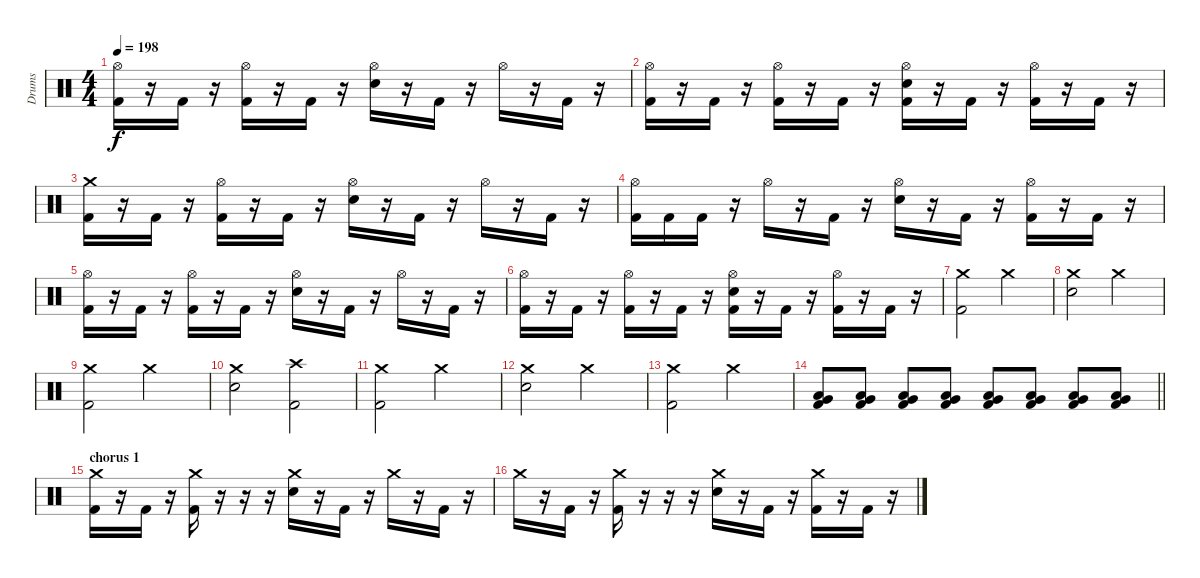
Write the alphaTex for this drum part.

\track ("Drums" "Drums") {instrument percussion}
\staff {score}
\articulation defaults
\ts (4 4)
\tempo 198
\clef neutral
\ks c
("Hi-Hat (open)" "Kick (hit) 2").16{dy f} r.16 "Kick (hit) 2".16 r.16 ("Hi-Hat (open)" "Kick (hit) 2").16 r.16 "Kick (hit) 2".16 r.16 ("Hi-Hat (open)" "Snare (hit) 2").16 r.16 "Kick (hit) 2".16 r.16 "Hi-Hat (open)".16 r.16 "Kick (hit) 2".16 r.16 |
("Hi-Hat (open)" "Kick (hit) 2").16 r.16 "Kick (hit) 2".16 r.16 ("Hi-Hat (open)" "Kick (hit) 2").16 r.16 "Kick (hit) 2".16 r.16 ("Hi-Hat (open)" "Snare (hit) 2" "Kick (hit) 2").16 r.16 "Kick (hit) 2".16 r.16 ("Hi-Hat (open)" "Kick (hit) 2").16 r.16 "Kick (hit) 2".16 r.16 |
("Crash medium (hit)" "Kick (hit) 2").16 r.16 "Kick (hit) 2".16 r.16 ("Hi-Hat (open)" "Kick (hit) 2").16 r.16 "Kick (hit) 2".16 r.16 ("Hi-Hat (open)" "Snare (hit) 2").16 r.16 "Kick (hit) 2".16 r.16 "Hi-Hat (open)".16 r.16 "Kick (hit) 2".16 r.16 |
("Hi-Hat (open)" "Kick (hit) 2").16 "Kick (hit) 2".16 "Kick (hit) 2".16 r.16 "Hi-Hat (open)".16 r.16 "Kick (hit) 2".16 r.16 ("Hi-Hat (open)" "Snare (hit) 2").16 r.16 "Kick (hit) 2".16 r.16 ("Hi-Hat (open)" "Kick (hit) 2").16 r.16 "Kick (hit) 2".16 r.16 |
("Hi-Hat (open)" "Kick (hit) 2").16 r.16 "Kick (hit) 2".16 r.16 ("Hi-Hat (open)" "Kick (hit) 2").16 r.16 "Kick (hit) 2".16 r.16 ("Hi-Hat (open)" "Snare (hit) 2").16 r.16 "Kick (hit) 2".16 r.16 "Hi-Hat (open)".16 r.16 "Kick (hit) 2".16 r.16 |
("Hi-Hat (open)" "Kick (hit) 2").16 r.16 "Kick (hit) 2".16 r.16 ("Hi-Hat (open)" "Kick (hit) 2").16 r.16 "Kick (hit) 2".16 r.16 ("Hi-Hat (open)" "Snare (hit) 2" "Kick (hit) 2").16 r.16 "Kick (hit) 2".16 r.16 ("Hi-Hat (open)" "Kick (hit) 2").16 r.16 "Kick (hit) 2".16 r.16 |
("Crash medium (hit)" "Kick (hit) 2").2 "Crash medium (hit)".2 |
("Crash medium (hit)" "Snare (hit) 2").2 "Crash medium (hit)".2 |
("Crash medium (hit)" "Kick (hit) 2").2 "Crash medium (hit)".2 |
("Crash medium (hit)" "Snare (hit) 2").2 ("Crash high (hit)" "Kick (hit) 2").2 |
("Crash medium (hit)" "Kick (hit) 2").2 "Crash medium (hit)".2 |
("Crash medium (hit)" "Snare (hit) 2").2 "Crash medium (hit)".2 |
("Crash medium (hit)" "Kick (hit) 2").2 "Crash medium (hit)".2 |
\barLineRight lightlight
("Low Tom (hit)" "Very Low Tom (hit)" "Kick (hit) 2").8 ("Low Tom (hit)" "Very Low Tom (hit)" "Kick (hit) 2").8 ("Low Tom (hit)" "Very Low Tom (hit)" "Kick (hit) 2").8 ("Low Tom (hit)" "Very Low Tom (hit)" "Kick (hit) 2").8 ("Low Tom (hit)" "Very Low Tom (hit)" "Kick (hit) 2").8 ("Low Tom (hit)" "Very Low Tom (hit)" "Kick (hit) 2").8 ("Low Tom (hit)" "Very Low Tom (hit)" "Kick (hit) 2").8 ("Low Tom (hit)" "Very Low Tom (hit)" "Kick (hit) 2").8 |
\section ("" "chorus 1")
("Crash medium (hit)" "Kick (hit) 2").16 r.16 "Kick (hit) 2".16 r.16 ("Crash medium (hit)" "Kick (hit) 2").16 r.16 r.16 r.16 ("Crash medium (hit)" "Snare (hit) 2").16 r.16 "Kick (hit) 2".16 r.16 "Crash medium (hit)".16 r.16 "Kick (hit) 2".16 r.16 |
"Crash medium (hit)".16 r.16 "Kick (hit) 2".16 r.16 ("Crash medium (hit)" "Kick (hit) 2").16 r.16 r.16 r.16 ("Crash medium (hit)" "Snare (hit) 2").16 r.16 "Kick (hit) 2".16 r.16 ("Crash medium (hit)" "Kick (hit) 2").16 r.16 "Kick (hit) 2".16 r.16
